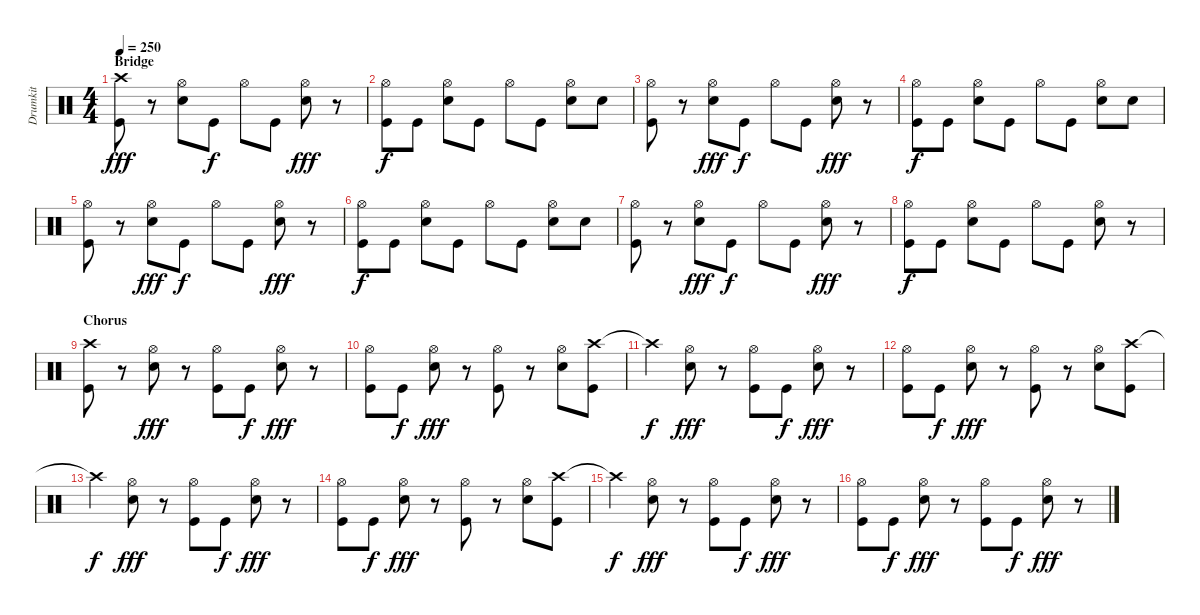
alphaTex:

\track ("Drumkit" "Drumkit") {instrument percussion}
\staff {score}
\articulation defaults
\ts (4 4)
\section ("" "Bridge")
\tempo 250
\clef neutral
\ks c
("Crash high (hit)" "Kick (hit)").8{dy fff} r.8 ("Hi-Hat (open)" "Snare (hit) 2").8 "Kick (hit)".8{dy f} "Hi-Hat (open)".8 "Kick (hit)".8 ("Hi-Hat (open)" "Snare (hit) 2").8{dy fff} r.8 |
("Hi-Hat (open)" "Kick (hit)").8{dy f} "Kick (hit)".8 ("Hi-Hat (open)" "Snare (hit) 2").8 "Kick (hit)".8 "Hi-Hat (open)".8 "Kick (hit)".8 ("Hi-Hat (open)" "Snare (hit) 2").8 "Snare (hit) 2".8 |
("Hi-Hat (open)" "Kick (hit)").8 r.8 ("Hi-Hat (open)" "Snare (hit) 2").8{dy fff} "Kick (hit)".8{dy f} "Hi-Hat (open)".8 "Kick (hit)".8 ("Hi-Hat (open)" "Snare (hit) 2").8{dy fff} r.8 |
("Hi-Hat (open)" "Kick (hit)").8{dy f} "Kick (hit)".8 ("Hi-Hat (open)" "Snare (hit) 2").8 "Kick (hit)".8 "Hi-Hat (open)".8 "Kick (hit)".8 ("Hi-Hat (open)" "Snare (hit) 2").8 "Snare (hit) 2".8 |
("Hi-Hat (open)" "Kick (hit)").8 r.8 ("Hi-Hat (open)" "Snare (hit) 2").8{dy fff} "Kick (hit)".8{dy f} "Hi-Hat (open)".8 "Kick (hit)".8 ("Hi-Hat (open)" "Snare (hit) 2").8{dy fff} r.8 |
("Hi-Hat (open)" "Kick (hit)").8{dy f} "Kick (hit)".8 ("Hi-Hat (open)" "Snare (hit) 2").8 "Kick (hit)".8 "Hi-Hat (open)".8 "Kick (hit)".8 ("Hi-Hat (open)" "Snare (hit) 2").8 "Snare (hit) 2".8 |
("Hi-Hat (open)" "Kick (hit)").8 r.8 ("Hi-Hat (open)" "Snare (hit) 2").8{dy fff} "Kick (hit)".8{dy f} "Hi-Hat (open)".8 "Kick (hit)".8 ("Hi-Hat (open)" "Snare (hit) 2").8{dy fff} r.8 |
("Hi-Hat (open)" "Kick (hit)").8{dy f} "Kick (hit)".8 ("Hi-Hat (open)" "Snare (hit) 2").8 "Kick (hit)".8 "Hi-Hat (open)".8 "Kick (hit)".8 ("Hi-Hat (open)" "Snare (hit) 2").8 r.8 |
\section ("" "Chorus")
("Crash high (hit)" "Kick (hit)").8 r.8 ("Hi-Hat (open)" "Snare (hit) 2").8{dy fff} r.8 ("Hi-Hat (open)" "Kick (hit)").8 "Kick (hit)".8{dy f} ("Hi-Hat (open)" "Snare (hit) 2").8{dy fff} r.8 |
("Hi-Hat (open)" "Kick (hit)").8 "Kick (hit)".8{dy f} ("Hi-Hat (open)" "Snare (hit) 2").8{dy fff} r.8 ("Hi-Hat (open)" "Kick (hit)").8 r.8 ("Hi-Hat (open)" "Snare (hit) 2").8 ("Crash high (hit)" "Kick (hit)").8 |
"Crash high (hit)"{t}.4{dy f} ("Hi-Hat (open)" "Snare (hit) 2").8{dy fff} r.8 ("Hi-Hat (open)" "Kick (hit)").8 "Kick (hit)".8{dy f} ("Hi-Hat (open)" "Snare (hit) 2").8{dy fff} r.8 |
("Hi-Hat (open)" "Kick (hit)").8 "Kick (hit)".8{dy f} ("Hi-Hat (open)" "Snare (hit) 2").8{dy fff} r.8 ("Hi-Hat (open)" "Kick (hit)").8 r.8 ("Hi-Hat (open)" "Snare (hit) 2").8 ("Crash high (hit)" "Kick (hit)").8 |
"Crash high (hit)"{t}.4{dy f} ("Hi-Hat (open)" "Snare (hit) 2").8{dy fff} r.8 ("Hi-Hat (open)" "Kick (hit)").8 "Kick (hit)".8{dy f} ("Hi-Hat (open)" "Snare (hit) 2").8{dy fff} r.8 |
("Hi-Hat (open)" "Kick (hit)").8 "Kick (hit)".8{dy f} ("Hi-Hat (open)" "Snare (hit) 2").8{dy fff} r.8 ("Hi-Hat (open)" "Kick (hit)").8 r.8 ("Hi-Hat (open)" "Snare (hit) 2").8 ("Crash high (hit)" "Kick (hit)").8 |
"Crash high (hit)"{t}.4{dy f} ("Hi-Hat (open)" "Snare (hit) 2").8{dy fff} r.8 ("Hi-Hat (open)" "Kick (hit)").8 "Kick (hit)".8{dy f} ("Hi-Hat (open)" "Snare (hit) 2").8{dy fff} r.8 |
("Hi-Hat (open)" "Kick (hit)").8 "Kick (hit)".8{dy f} ("Hi-Hat (open)" "Snare (hit) 2").8{dy fff} r.8 ("Hi-Hat (open)" "Kick (hit)").8 "Kick (hit)".8{dy f} ("Hi-Hat (open)" "Snare (hit) 2").8{dy fff} r.8
